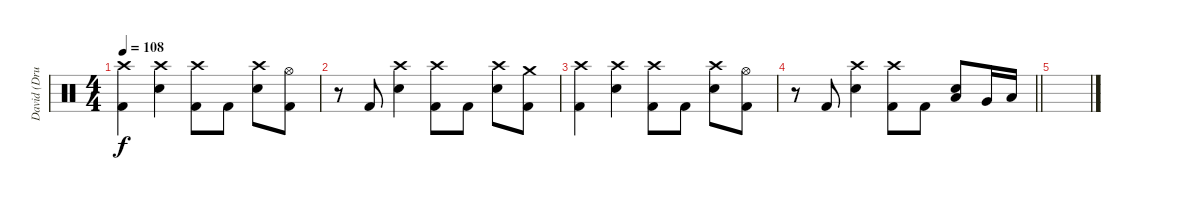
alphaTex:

\track ("David (Drum)" "David (Dru") {instrument percussion}
\staff {score}
\articulation defaults
\ts (4 4)
\tempo 108
\clef neutral
\ks c
("Crash high (hit)" "Kick (hit) 2").4{dy f} ("Crash high (hit)" "Electric Snare (hit)").4 ("Crash high (hit)" "Kick (hit) 2").8 "Kick (hit) 2".8 ("Crash high (hit)" "Electric Snare (hit)").8 ("Hi-Hat (open)" "Kick (hit) 2").8 |
r.8 "Kick (hit) 2".8 ("Crash high (hit)" "Electric Snare (hit)").4 ("Crash high (hit)" "Kick (hit) 2").8 "Kick (hit) 2".8 ("Crash high (hit)" "Electric Snare (hit)").8 ("Crash medium (hit)" "Kick (hit) 2").8 |
("Crash high (hit)" "Kick (hit) 2").4 ("Crash high (hit)" "Electric Snare (hit)").4 ("Crash high (hit)" "Kick (hit) 2").8 "Kick (hit) 2".8 ("Crash high (hit)" "Electric Snare (hit)").8 ("Hi-Hat (open)" "Kick (hit) 2").8 |
\barLineRight lightlight
r.8 "Kick (hit) 2".8 ("Crash high (hit)" "Electric Snare (hit)").4 ("Crash high (hit)" "Kick (hit) 2").8 "Kick (hit) 2".8 ("Low Tom (hit)" "Electric Snare (hit)").8 "Very Low Tom (hit)".16 "Low Floor Tom (hit)".16 |
\section ("" "")
